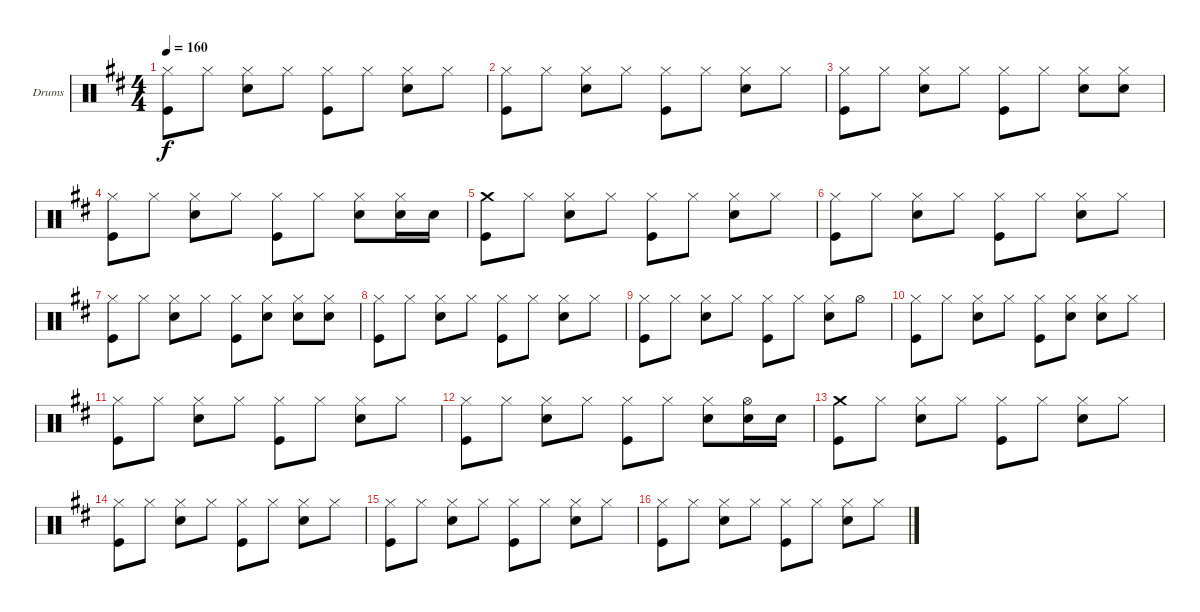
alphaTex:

\defaultSystemsLayout 4
\bracketExtendMode groupsimilarinstruments
\firstSystemTrackNameOrientation horizontal
\otherSystemsTrackNameOrientation horizontal
\track ("Drumkit" "Drums") {instrument percussion}
\staff {score}
\articulation defaults
\ts (4 4)
\tempo 160
\clef neutral
\ks d
("Hi-Hat (closed)" "Kick (hit)").8{dy f} "Hi-Hat (closed)".8 ("Hi-Hat (closed)" "Snare (hit) 2").8 "Hi-Hat (closed)".8 ("Hi-Hat (closed)" "Kick (hit)").8 "Hi-Hat (closed)".8 ("Hi-Hat (closed)" "Snare (hit) 2").8 "Hi-Hat (closed)".8 |
("Hi-Hat (closed)" "Kick (hit)").8 "Hi-Hat (closed)".8 ("Hi-Hat (closed)" "Snare (hit) 2").8 "Hi-Hat (closed)".8 ("Hi-Hat (closed)" "Kick (hit)").8 "Hi-Hat (closed)".8 ("Hi-Hat (closed)" "Snare (hit) 2").8 "Hi-Hat (closed)".8 |
("Hi-Hat (closed)" "Kick (hit)").8 "Hi-Hat (closed)".8 ("Hi-Hat (closed)" "Snare (hit) 2").8 "Hi-Hat (closed)".8 ("Hi-Hat (closed)" "Kick (hit)").8 "Hi-Hat (closed)".8 ("Hi-Hat (closed)" "Snare (hit) 2").8 ("Hi-Hat (closed)" "Snare (hit) 2").8 |
("Hi-Hat (closed)" "Kick (hit)").8 "Hi-Hat (closed)".8 ("Hi-Hat (closed)" "Snare (hit) 2").8 "Hi-Hat (closed)".8 ("Hi-Hat (closed)" "Kick (hit)").8 "Hi-Hat (closed)".8 ("Snare (hit) 2" "Hi-Hat (closed)").8 ("Hi-Hat (closed)" "Snare (hit) 2").16 "Snare (hit) 2".16 |
("Crash medium (hit)" "Kick (hit)").8 "Hi-Hat (closed)".8 ("Hi-Hat (closed)" "Snare (hit) 2").8 "Hi-Hat (closed)".8 ("Hi-Hat (closed)" "Kick (hit)").8 "Hi-Hat (closed)".8 ("Hi-Hat (closed)" "Snare (hit) 2").8 "Hi-Hat (closed)".8 |
("Hi-Hat (closed)" "Kick (hit)").8 "Hi-Hat (closed)".8 ("Hi-Hat (closed)" "Snare (hit) 2").8 "Hi-Hat (closed)".8 ("Hi-Hat (closed)" "Kick (hit)").8 "Hi-Hat (closed)".8 ("Hi-Hat (closed)" "Snare (hit) 2").8 "Hi-Hat (closed)".8 |
("Hi-Hat (closed)" "Kick (hit)").8 "Hi-Hat (closed)".8 ("Hi-Hat (closed)" "Snare (hit) 2").8 "Hi-Hat (closed)".8 ("Hi-Hat (closed)" "Kick (hit)").8 ("Hi-Hat (closed)" "Snare (hit) 2").8 ("Hi-Hat (closed)" "Snare (hit) 2").8 ("Hi-Hat (closed)" "Snare (hit) 2").8 |
("Hi-Hat (closed)" "Kick (hit)").8 "Hi-Hat (closed)".8 ("Hi-Hat (closed)" "Snare (hit) 2").8 "Hi-Hat (closed)".8 ("Hi-Hat (closed)" "Kick (hit)").8 "Hi-Hat (closed)".8 ("Hi-Hat (closed)" "Snare (hit) 2").8 "Hi-Hat (closed)".8 |
("Hi-Hat (closed)" "Kick (hit)").8 "Hi-Hat (closed)".8 ("Hi-Hat (closed)" "Snare (hit) 2").8 "Hi-Hat (closed)".8 ("Hi-Hat (closed)" "Kick (hit)").8 "Hi-Hat (closed)".8 ("Hi-Hat (closed)" "Snare (hit) 2").8 "Hi-Hat (open)".8 |
("Hi-Hat (closed)" "Kick (hit)").8 "Hi-Hat (closed)".8 ("Hi-Hat (closed)" "Snare (hit) 2").8 "Hi-Hat (closed)".8 ("Hi-Hat (closed)" "Kick (hit)").8 ("Hi-Hat (closed)" "Snare (hit) 2").8 ("Hi-Hat (closed)" "Snare (hit) 2").8 "Hi-Hat (closed)".8 |
("Hi-Hat (closed)" "Kick (hit)").8 "Hi-Hat (closed)".8 ("Hi-Hat (closed)" "Snare (hit) 2").8 "Hi-Hat (closed)".8 ("Hi-Hat (closed)" "Kick (hit)").8 "Hi-Hat (closed)".8 ("Hi-Hat (closed)" "Snare (hit) 2").8 "Hi-Hat (closed)".8 |
("Hi-Hat (closed)" "Kick (hit)").8 "Hi-Hat (closed)".8 ("Hi-Hat (closed)" "Snare (hit) 2").8 "Hi-Hat (closed)".8 ("Kick (hit)" "Hi-Hat (closed)").8 "Hi-Hat (closed)".8 ("Hi-Hat (closed)" "Snare (hit) 2").8 ("Hi-Hat (open)" "Snare (hit) 2").16 "Snare (hit) 2".16 |
("Crash medium (hit)" "Kick (hit)").8 "Hi-Hat (closed)".8 ("Hi-Hat (closed)" "Snare (hit) 2").8 "Hi-Hat (closed)".8 ("Kick (hit)" "Hi-Hat (closed)").8 "Hi-Hat (closed)".8 ("Hi-Hat (closed)" "Snare (hit) 2").8 "Hi-Hat (closed)".8 |
("Hi-Hat (closed)" "Kick (hit)").8 "Hi-Hat (closed)".8 ("Hi-Hat (closed)" "Snare (hit) 2").8 "Hi-Hat (closed)".8 ("Hi-Hat (closed)" "Kick (hit)").8 "Hi-Hat (closed)".8 ("Hi-Hat (closed)" "Snare (hit) 2").8 "Hi-Hat (closed)".8 |
("Hi-Hat (closed)" "Kick (hit)").8 "Hi-Hat (closed)".8 ("Hi-Hat (closed)" "Snare (hit) 2").8 "Hi-Hat (closed)".8 ("Hi-Hat (closed)" "Kick (hit)").8 "Hi-Hat (closed)".8 ("Hi-Hat (closed)" "Snare (hit) 2").8 "Hi-Hat (closed)".8 |
("Hi-Hat (closed)" "Kick (hit)").8 "Hi-Hat (closed)".8 ("Hi-Hat (closed)" "Snare (hit) 2").8 "Hi-Hat (closed)".8 ("Hi-Hat (closed)" "Kick (hit)").8 "Hi-Hat (closed)".8 ("Hi-Hat (closed)" "Snare (hit) 2").8 "Hi-Hat (closed)".8
